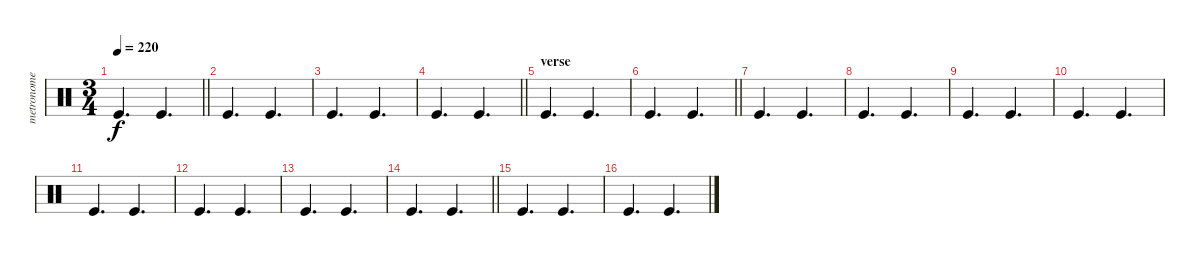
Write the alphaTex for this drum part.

\track ("metronome" "metronome") {instrument percussion}
\staff {score}
\articulation defaults
\ts (3 4)
\tempo 220
\clef neutral
\barLineRight lightlight
\ks c "Kick (hit)".4{d dy f} "Kick (hit)".4{d}
|
"Kick (hit)".4{d} "Kick (hit)".4{d} |
"Kick (hit)".4{d} "Kick (hit)".4{d} |
\barLineRight lightlight "Kick (hit)".4{d} "Kick (hit)".4{d}
|
\section ("" "verse")
"Kick (hit)".4{d} "Kick (hit)".4{d} |
\barLineRight lightlight "Kick (hit)".4{d} "Kick (hit)".4{d}
|
"Kick (hit)".4{d} "Kick (hit)".4{d} |
"Kick (hit)".4{d} "Kick (hit)".4{d} |
"Kick (hit)".4{d} "Kick (hit)".4{d} |
"Kick (hit)".4{d} "Kick (hit)".4{d} |
"Kick (hit)".4{d} "Kick (hit)".4{d} |
"Kick (hit)".4{d} "Kick (hit)".4{d} |
"Kick (hit)".4{d} "Kick (hit)".4{d} |
\barLineRight lightlight "Kick (hit)".4{d} "Kick (hit)".4{d}
|
"Kick (hit)".4{d} "Kick (hit)".4{d} |
"Kick (hit)".4{d} "Kick (hit)".4{d}
